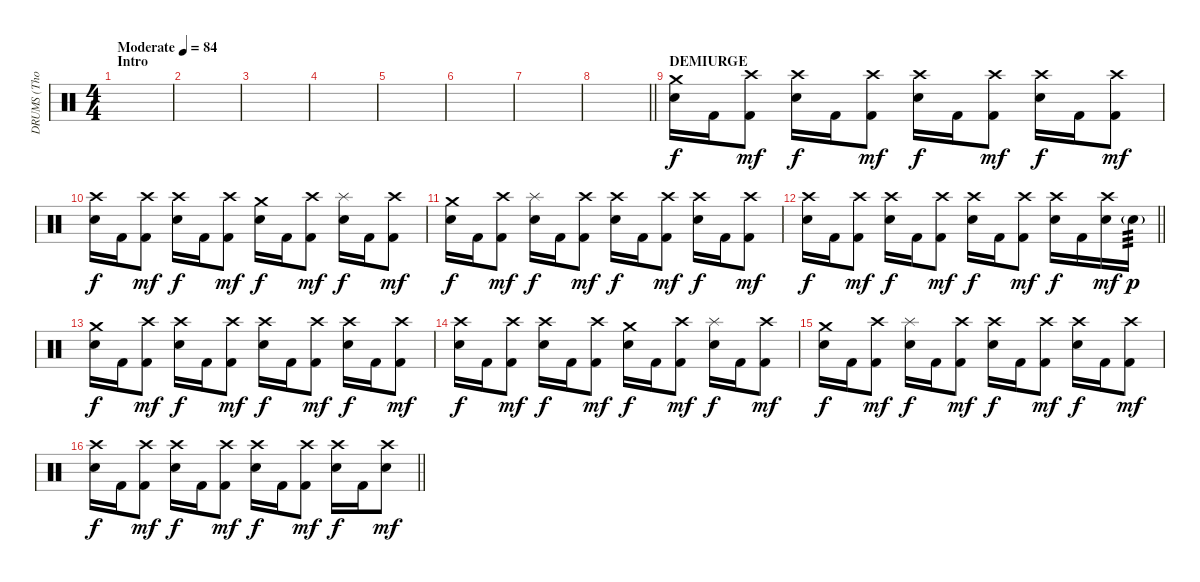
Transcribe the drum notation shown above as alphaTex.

\track ("DRUMS (Thomas Haake)" "DRUMS (Tho") {instrument percussion}
\staff {score}
\articulation defaults
\ts (4 4)
\section ("" "Intro")
\tempo (84 "Moderate")
\clef neutral
\ks c
|
|
|
|
|
|
|
\barLineRight lightlight
|
\section ("" "DEMIURGE")
("Crash medium (hit)" "Electric Snare (hit)").16 "Kick (hit) 2".16 ("Crash high (hit)" "Kick (hit) 2").8{dy mf} ("Crash high (hit)" "Electric Snare (hit)").16{dy f} "Kick (hit) 2".16 ("Crash high (hit)" "Kick (hit) 2").8{dy mf} ("Crash high (hit)" "Electric Snare (hit)").16{dy f} "Kick (hit) 2".16 ("Crash high (hit)" "Kick (hit) 2").8{dy mf} ("Crash high (hit)" "Electric Snare (hit)").16{dy f} "Kick (hit) 2".16 ("Crash high (hit)" "Kick (hit) 2").8{dy mf} |
("Crash high (hit)" "Electric Snare (hit)").16{dy f} "Kick (hit) 2".16 ("Crash high (hit)" "Kick (hit) 2").8{dy mf} ("Crash high (hit)" "Electric Snare (hit)").16{dy f} "Kick (hit) 2".16 ("Crash high (hit)" "Kick (hit) 2").8{dy mf} ("Crash medium (hit)" "Electric Snare (hit)").16{dy f} "Kick (hit) 2".16 ("Crash high (hit)" "Kick (hit) 2").8{dy mf} ("Splash (hit)" "Electric Snare (hit)").16{dy f} "Kick (hit) 2".16 ("Crash high (hit)" "Kick (hit) 2").8{dy mf} |
("Crash medium (hit)" "Electric Snare (hit)").16{dy f} "Kick (hit) 2".16 ("Crash high (hit)" "Kick (hit) 2").8{dy mf} ("Splash (hit)" "Electric Snare (hit)").16{dy f} "Kick (hit) 2".16 ("Crash high (hit)" "Kick (hit) 2").8{dy mf} ("Crash high (hit)" "Electric Snare (hit)").16{dy f} "Kick (hit) 2".16 ("Crash high (hit)" "Kick (hit) 2").8{dy mf} ("Crash high (hit)" "Electric Snare (hit)").16{dy f} "Kick (hit) 2".16 ("Crash high (hit)" "Kick (hit) 2").8{dy mf} |
\barLineRight lightlight
("Crash high (hit)" "Electric Snare (hit)").16{dy f} "Kick (hit) 2".16 ("Crash high (hit)" "Kick (hit) 2").8{dy mf} ("Crash high (hit)" "Electric Snare (hit)").16{dy f} "Kick (hit) 2".16 ("Crash high (hit)" "Kick (hit) 2").8{dy mf} ("Crash high (hit)" "Electric Snare (hit)").16{dy f} "Kick (hit) 2".16 ("Crash high (hit)" "Kick (hit) 2").8{dy mf} ("Crash high (hit)" "Electric Snare (hit)").16{dy f} "Kick (hit) 2".16 ("Crash high (hit)" "Electric Snare (hit)").16{dy mf} "Electric Snare (hit)"{g}.16{tp 3 dy p} |
("Crash medium (hit)" "Electric Snare (hit)").16{dy f} "Kick (hit) 2".16 ("Crash high (hit)" "Kick (hit) 2").8{dy mf} ("Crash high (hit)" "Electric Snare (hit)").16{dy f} "Kick (hit) 2".16 ("Crash high (hit)" "Kick (hit) 2").8{dy mf} ("Crash high (hit)" "Electric Snare (hit)").16{dy f} "Kick (hit) 2".16 ("Crash high (hit)" "Kick (hit) 2").8{dy mf} ("Crash high (hit)" "Electric Snare (hit)").16{dy f} "Kick (hit) 2".16 ("Crash high (hit)" "Kick (hit) 2").8{dy mf} |
("Crash high (hit)" "Electric Snare (hit)").16{dy f} "Kick (hit) 2".16 ("Crash high (hit)" "Kick (hit) 2").8{dy mf} ("Crash high (hit)" "Electric Snare (hit)").16{dy f} "Kick (hit) 2".16 ("Crash high (hit)" "Kick (hit) 2").8{dy mf} ("Crash medium (hit)" "Electric Snare (hit)").16{dy f} "Kick (hit) 2".16 ("Crash high (hit)" "Kick (hit) 2").8{dy mf} ("Splash (hit)" "Electric Snare (hit)").16{dy f} "Kick (hit) 2".16 ("Crash high (hit)" "Kick (hit) 2").8{dy mf} |
("Crash medium (hit)" "Electric Snare (hit)").16{dy f} "Kick (hit) 2".16 ("Crash high (hit)" "Kick (hit) 2").8{dy mf} ("Splash (hit)" "Electric Snare (hit)").16{dy f} "Kick (hit) 2".16 ("Crash high (hit)" "Kick (hit) 2").8{dy mf} ("Crash high (hit)" "Electric Snare (hit)").16{dy f} "Kick (hit) 2".16 ("Crash high (hit)" "Kick (hit) 2").8{dy mf} ("Crash high (hit)" "Electric Snare (hit)").16{dy f} "Kick (hit) 2".16 ("Crash high (hit)" "Kick (hit) 2").8{dy mf} |
\barLineRight lightlight
("Crash high (hit)" "Electric Snare (hit)").16{dy f} "Kick (hit) 2".16 ("Crash high (hit)" "Kick (hit) 2").8{dy mf} ("Crash high (hit)" "Electric Snare (hit)").16{dy f} "Kick (hit) 2".16 ("Crash high (hit)" "Kick (hit) 2").8{dy mf} ("Crash high (hit)" "Electric Snare (hit)").16{dy f} "Kick (hit) 2".16 ("Crash high (hit)" "Kick (hit) 2").8{dy mf} ("Crash high (hit)" "Electric Snare (hit)").16{dy f} "Kick (hit) 2".16 ("Crash high (hit)" "Electric Snare (hit)").8{dy mf}
